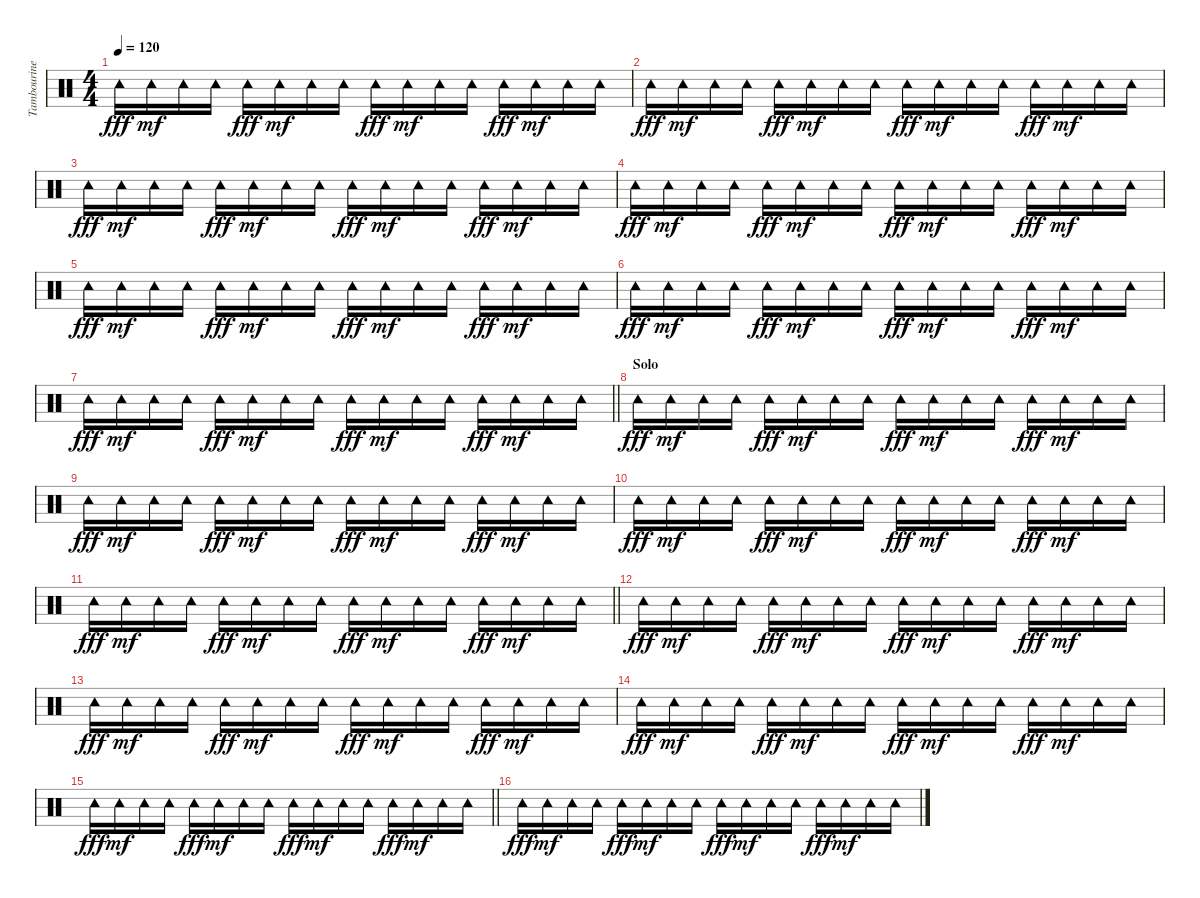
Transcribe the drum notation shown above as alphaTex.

\track ("Tambourine" "Tambourine") {instrument percussion}
\staff {score}
\articulation defaults
\ts (4 4)
\tempo 120
\clef neutral
\ks c "Tambourine (hit)".16{dy fff} "Tambourine (hit)".16{dy mf} "Tambourine (hit)".16 "Tambourine (hit)".16 "Tambourine (hit)".16{dy fff} "Tambourine (hit)".16{dy mf} "Tambourine (hit)".16 "Tambourine (hit)".16 "Tambourine (hit)".16{dy fff} "Tambourine (hit)".16{dy mf} "Tambourine (hit)".16 "Tambourine (hit)".16 "Tambourine (hit)".16{dy fff} "Tambourine (hit)".16{dy mf} "Tambourine (hit)".16 "Tambourine (hit)".16
|
"Tambourine (hit)".16{dy fff} "Tambourine (hit)".16{dy mf} "Tambourine (hit)".16 "Tambourine (hit)".16 "Tambourine (hit)".16{dy fff} "Tambourine (hit)".16{dy mf} "Tambourine (hit)".16 "Tambourine (hit)".16 "Tambourine (hit)".16{dy fff} "Tambourine (hit)".16{dy mf} "Tambourine (hit)".16 "Tambourine (hit)".16 "Tambourine (hit)".16{dy fff} "Tambourine (hit)".16{dy mf} "Tambourine (hit)".16 "Tambourine (hit)".16 |
"Tambourine (hit)".16{dy fff} "Tambourine (hit)".16{dy mf} "Tambourine (hit)".16 "Tambourine (hit)".16 "Tambourine (hit)".16{dy fff} "Tambourine (hit)".16{dy mf} "Tambourine (hit)".16 "Tambourine (hit)".16 "Tambourine (hit)".16{dy fff} "Tambourine (hit)".16{dy mf} "Tambourine (hit)".16 "Tambourine (hit)".16 "Tambourine (hit)".16{dy fff} "Tambourine (hit)".16{dy mf} "Tambourine (hit)".16 "Tambourine (hit)".16 |
"Tambourine (hit)".16{dy fff} "Tambourine (hit)".16{dy mf} "Tambourine (hit)".16 "Tambourine (hit)".16 "Tambourine (hit)".16{dy fff} "Tambourine (hit)".16{dy mf} "Tambourine (hit)".16 "Tambourine (hit)".16 "Tambourine (hit)".16{dy fff} "Tambourine (hit)".16{dy mf} "Tambourine (hit)".16 "Tambourine (hit)".16 "Tambourine (hit)".16{dy fff} "Tambourine (hit)".16{dy mf} "Tambourine (hit)".16 "Tambourine (hit)".16 |
"Tambourine (hit)".16{dy fff} "Tambourine (hit)".16{dy mf} "Tambourine (hit)".16 "Tambourine (hit)".16 "Tambourine (hit)".16{dy fff} "Tambourine (hit)".16{dy mf} "Tambourine (hit)".16 "Tambourine (hit)".16 "Tambourine (hit)".16{dy fff} "Tambourine (hit)".16{dy mf} "Tambourine (hit)".16 "Tambourine (hit)".16 "Tambourine (hit)".16{dy fff} "Tambourine (hit)".16{dy mf} "Tambourine (hit)".16 "Tambourine (hit)".16 |
"Tambourine (hit)".16{dy fff} "Tambourine (hit)".16{dy mf} "Tambourine (hit)".16 "Tambourine (hit)".16 "Tambourine (hit)".16{dy fff} "Tambourine (hit)".16{dy mf} "Tambourine (hit)".16 "Tambourine (hit)".16 "Tambourine (hit)".16{dy fff} "Tambourine (hit)".16{dy mf} "Tambourine (hit)".16 "Tambourine (hit)".16 "Tambourine (hit)".16{dy fff} "Tambourine (hit)".16{dy mf} "Tambourine (hit)".16 "Tambourine (hit)".16 |
\barLineRight lightlight "Tambourine (hit)".16{dy fff} "Tambourine (hit)".16{dy mf} "Tambourine (hit)".16 "Tambourine (hit)".16 "Tambourine (hit)".16{dy fff} "Tambourine (hit)".16{dy mf} "Tambourine (hit)".16 "Tambourine (hit)".16 "Tambourine (hit)".16{dy fff} "Tambourine (hit)".16{dy mf} "Tambourine (hit)".16 "Tambourine (hit)".16 "Tambourine (hit)".16{dy fff} "Tambourine (hit)".16{dy mf} "Tambourine (hit)".16 "Tambourine (hit)".16
|
\section ("" "Solo")
"Tambourine (hit)".16{dy fff} "Tambourine (hit)".16{dy mf} "Tambourine (hit)".16 "Tambourine (hit)".16 "Tambourine (hit)".16{dy fff} "Tambourine (hit)".16{dy mf} "Tambourine (hit)".16 "Tambourine (hit)".16 "Tambourine (hit)".16{dy fff} "Tambourine (hit)".16{dy mf} "Tambourine (hit)".16 "Tambourine (hit)".16 "Tambourine (hit)".16{dy fff} "Tambourine (hit)".16{dy mf} "Tambourine (hit)".16 "Tambourine (hit)".16 |
"Tambourine (hit)".16{dy fff} "Tambourine (hit)".16{dy mf} "Tambourine (hit)".16 "Tambourine (hit)".16 "Tambourine (hit)".16{dy fff} "Tambourine (hit)".16{dy mf} "Tambourine (hit)".16 "Tambourine (hit)".16 "Tambourine (hit)".16{dy fff} "Tambourine (hit)".16{dy mf} "Tambourine (hit)".16 "Tambourine (hit)".16 "Tambourine (hit)".16{dy fff} "Tambourine (hit)".16{dy mf} "Tambourine (hit)".16 "Tambourine (hit)".16 |
"Tambourine (hit)".16{dy fff} "Tambourine (hit)".16{dy mf} "Tambourine (hit)".16 "Tambourine (hit)".16 "Tambourine (hit)".16{dy fff} "Tambourine (hit)".16{dy mf} "Tambourine (hit)".16 "Tambourine (hit)".16 "Tambourine (hit)".16{dy fff} "Tambourine (hit)".16{dy mf} "Tambourine (hit)".16 "Tambourine (hit)".16 "Tambourine (hit)".16{dy fff} "Tambourine (hit)".16{dy mf} "Tambourine (hit)".16 "Tambourine (hit)".16 |
\barLineRight lightlight "Tambourine (hit)".16{dy fff} "Tambourine (hit)".16{dy mf} "Tambourine (hit)".16 "Tambourine (hit)".16 "Tambourine (hit)".16{dy fff} "Tambourine (hit)".16{dy mf} "Tambourine (hit)".16 "Tambourine (hit)".16 "Tambourine (hit)".16{dy fff} "Tambourine (hit)".16{dy mf} "Tambourine (hit)".16 "Tambourine (hit)".16 "Tambourine (hit)".16{dy fff} "Tambourine (hit)".16{dy mf} "Tambourine (hit)".16 "Tambourine (hit)".16
|
"Tambourine (hit)".16{dy fff} "Tambourine (hit)".16{dy mf} "Tambourine (hit)".16 "Tambourine (hit)".16 "Tambourine (hit)".16{dy fff} "Tambourine (hit)".16{dy mf} "Tambourine (hit)".16 "Tambourine (hit)".16 "Tambourine (hit)".16{dy fff} "Tambourine (hit)".16{dy mf} "Tambourine (hit)".16 "Tambourine (hit)".16 "Tambourine (hit)".16{dy fff} "Tambourine (hit)".16{dy mf} "Tambourine (hit)".16 "Tambourine (hit)".16 |
"Tambourine (hit)".16{dy fff} "Tambourine (hit)".16{dy mf} "Tambourine (hit)".16 "Tambourine (hit)".16 "Tambourine (hit)".16{dy fff} "Tambourine (hit)".16{dy mf} "Tambourine (hit)".16 "Tambourine (hit)".16 "Tambourine (hit)".16{dy fff} "Tambourine (hit)".16{dy mf} "Tambourine (hit)".16 "Tambourine (hit)".16 "Tambourine (hit)".16{dy fff} "Tambourine (hit)".16{dy mf} "Tambourine (hit)".16 "Tambourine (hit)".16 |
"Tambourine (hit)".16{dy fff} "Tambourine (hit)".16{dy mf} "Tambourine (hit)".16 "Tambourine (hit)".16 "Tambourine (hit)".16{dy fff} "Tambourine (hit)".16{dy mf} "Tambourine (hit)".16 "Tambourine (hit)".16 "Tambourine (hit)".16{dy fff} "Tambourine (hit)".16{dy mf} "Tambourine (hit)".16 "Tambourine (hit)".16 "Tambourine (hit)".16{dy fff} "Tambourine (hit)".16{dy mf} "Tambourine (hit)".16 "Tambourine (hit)".16 |
\barLineRight lightlight "Tambourine (hit)".16{dy fff} "Tambourine (hit)".16{dy mf} "Tambourine (hit)".16 "Tambourine (hit)".16 "Tambourine (hit)".16{dy fff} "Tambourine (hit)".16{dy mf} "Tambourine (hit)".16 "Tambourine (hit)".16 "Tambourine (hit)".16{dy fff} "Tambourine (hit)".16{dy mf} "Tambourine (hit)".16 "Tambourine (hit)".16 "Tambourine (hit)".16{dy fff} "Tambourine (hit)".16{dy mf} "Tambourine (hit)".16 "Tambourine (hit)".16
|
"Tambourine (hit)".16{dy fff} "Tambourine (hit)".16{dy mf} "Tambourine (hit)".16 "Tambourine (hit)".16 "Tambourine (hit)".16{dy fff} "Tambourine (hit)".16{dy mf} "Tambourine (hit)".16 "Tambourine (hit)".16 "Tambourine (hit)".16{dy fff} "Tambourine (hit)".16{dy mf} "Tambourine (hit)".16 "Tambourine (hit)".16 "Tambourine (hit)".16{dy fff} "Tambourine (hit)".16{dy mf} "Tambourine (hit)".16 "Tambourine (hit)".16
